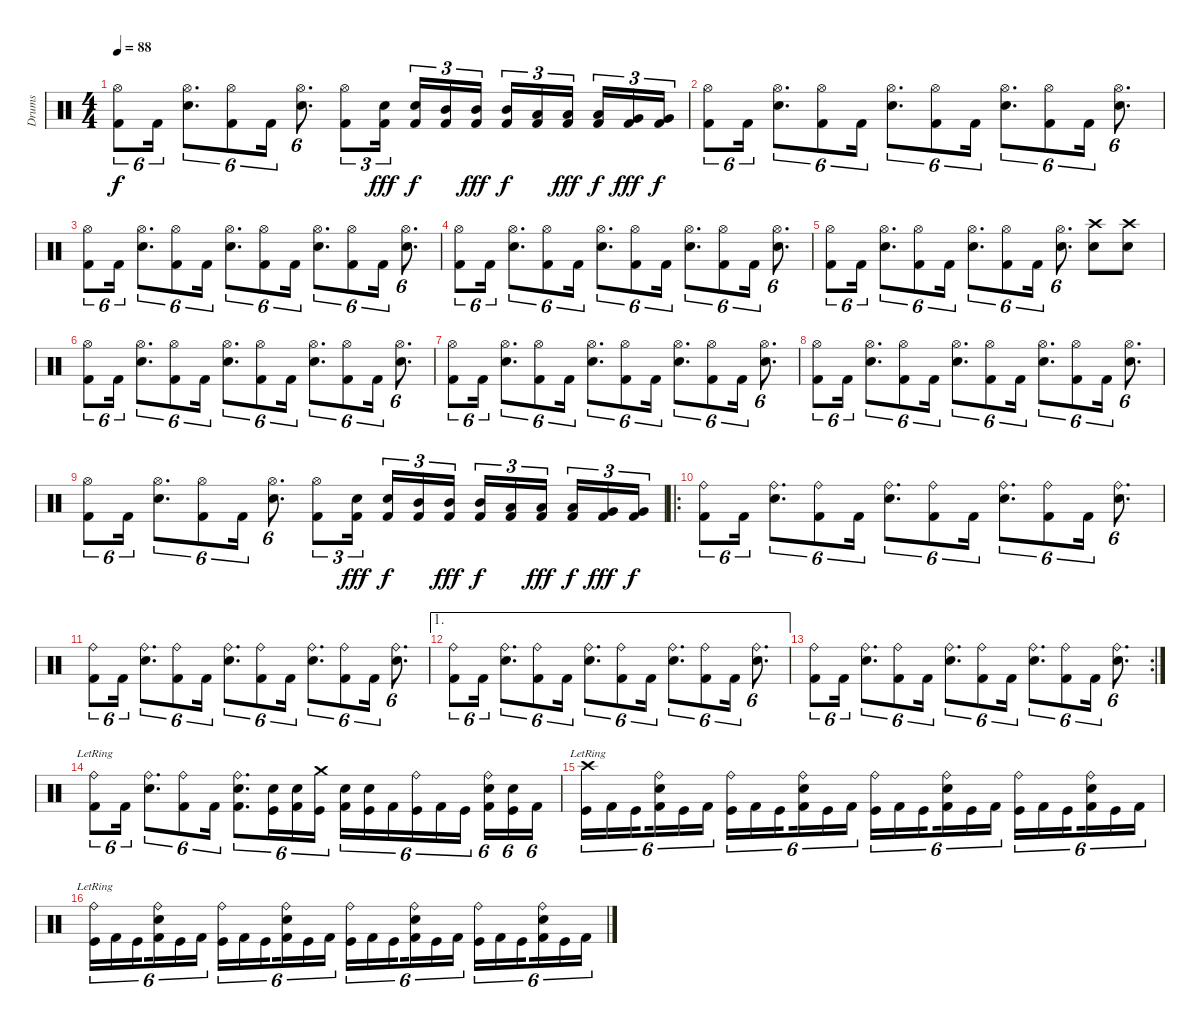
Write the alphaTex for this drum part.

\track ("Drums" "Drums") {instrument percussion}
\staff {score}
\articulation defaults
\ts (4 4)
\tempo 88
\clef neutral
\ks c
("Hi-Hat (open)" "Kick (hit) 2").8{tu (6 4) dy f} "Kick (hit) 2".16{tu (6 4)} ("Hi-Hat (open)" "Snare (hit) 2").8{d tu (6 4)} ("Hi-Hat (open)" "Kick (hit) 2").8{tu (6 4)} "Kick (hit) 2".16{tu (6 4)} ("Hi-Hat (open)" "Snare (hit) 2").8{d tu (6 4)} ("Hi-Hat (open)" "Kick (hit) 2").8{tu (3 2)} ("Snare (hit) 2" "Kick (hit) 2").16{tu (3 2) dy fff beam splitsecondary} ("Snare (hit) 2" "Kick (hit) 2").16{tu (3 2) dy f} ("Mid Tom (hit)" "Kick (hit) 2").16{tu (3 2)} ("Mid Tom (hit)" "Kick (hit) 2").16{tu (3 2) dy fff} ("Mid Tom (hit)" "Kick (hit) 2").16{tu (3 2) dy f} ("Low Tom (hit)" "Kick (hit) 2").16{tu (3 2)} ("Low Tom (hit)" "Kick (hit) 2").16{tu (3 2) dy fff beam splitsecondary} ("Low Tom (hit)" "Kick (hit) 2").16{tu (3 2) dy f} ("Very Low Tom (hit)" "Kick (hit) 2").16{tu (3 2) dy fff} ("Very Low Tom (hit)" "Kick (hit) 2").16{tu (3 2) dy f} |
("Hi-Hat (open)" "Kick (hit) 2").8{tu (6 4)} "Kick (hit) 2".16{tu (6 4)} ("Hi-Hat (open)" "Snare (hit) 2").8{d tu (6 4)} ("Hi-Hat (open)" "Kick (hit) 2").8{tu (6 4)} "Kick (hit) 2".16{tu (6 4)} ("Hi-Hat (open)" "Snare (hit) 2").8{d tu (6 4)} ("Hi-Hat (open)" "Kick (hit) 2").8{tu (6 4)} "Kick (hit) 2".16{tu (6 4)} ("Hi-Hat (open)" "Snare (hit) 2").8{d tu (6 4)} ("Hi-Hat (open)" "Kick (hit) 2").8{tu (6 4)} "Kick (hit) 2".16{tu (6 4)} ("Hi-Hat (open)" "Snare (hit) 2").8{d tu (6 4)} |
("Hi-Hat (open)" "Kick (hit) 2").8{tu (6 4)} "Kick (hit) 2".16{tu (6 4)} ("Hi-Hat (open)" "Snare (hit) 2").8{d tu (6 4)} ("Hi-Hat (open)" "Kick (hit) 2").8{tu (6 4)} "Kick (hit) 2".16{tu (6 4)} ("Hi-Hat (open)" "Snare (hit) 2").8{d tu (6 4)} ("Hi-Hat (open)" "Kick (hit) 2").8{tu (6 4)} "Kick (hit) 2".16{tu (6 4)} ("Hi-Hat (open)" "Snare (hit) 2").8{d tu (6 4)} ("Hi-Hat (open)" "Kick (hit) 2").8{tu (6 4)} "Kick (hit) 2".16{tu (6 4)} ("Hi-Hat (open)" "Snare (hit) 2").8{d tu (6 4)} |
("Hi-Hat (open)" "Kick (hit) 2").8{tu (6 4)} "Kick (hit) 2".16{tu (6 4)} ("Hi-Hat (open)" "Snare (hit) 2").8{d tu (6 4)} ("Hi-Hat (open)" "Kick (hit) 2").8{tu (6 4)} "Kick (hit) 2".16{tu (6 4)} ("Hi-Hat (open)" "Snare (hit) 2").8{d tu (6 4)} ("Hi-Hat (open)" "Kick (hit) 2").8{tu (6 4)} "Kick (hit) 2".16{tu (6 4)} ("Hi-Hat (open)" "Snare (hit) 2").8{d tu (6 4)} ("Hi-Hat (open)" "Kick (hit) 2").8{tu (6 4)} "Kick (hit) 2".16{tu (6 4)} ("Hi-Hat (open)" "Snare (hit) 2").8{d tu (6 4)} |
("Hi-Hat (open)" "Kick (hit) 2").8{tu (6 4)} "Kick (hit) 2".16{tu (6 4)} ("Hi-Hat (open)" "Snare (hit) 2").8{d tu (6 4)} ("Hi-Hat (open)" "Kick (hit) 2").8{tu (6 4)} "Kick (hit) 2".16{tu (6 4)} ("Hi-Hat (open)" "Snare (hit) 2").8{d tu (6 4)} ("Hi-Hat (open)" "Kick (hit) 2").8{tu (6 4)} "Kick (hit) 2".16{tu (6 4)} ("Hi-Hat (open)" "Snare (hit) 2").8{d tu (6 4)} ("Crash high (hit)" "Snare (hit) 2").8 ("Crash high (hit)" "Snare (hit) 2").8 |
("Hi-Hat (open)" "Kick (hit) 2").8{tu (6 4)} "Kick (hit) 2".16{tu (6 4)} ("Hi-Hat (open)" "Snare (hit) 2").8{d tu (6 4)} ("Hi-Hat (open)" "Kick (hit) 2").8{tu (6 4)} "Kick (hit) 2".16{tu (6 4)} ("Hi-Hat (open)" "Snare (hit) 2").8{d tu (6 4)} ("Hi-Hat (open)" "Kick (hit) 2").8{tu (6 4)} "Kick (hit) 2".16{tu (6 4)} ("Hi-Hat (open)" "Snare (hit) 2").8{d tu (6 4)} ("Hi-Hat (open)" "Kick (hit) 2").8{tu (6 4)} "Kick (hit) 2".16{tu (6 4)} ("Hi-Hat (open)" "Snare (hit) 2").8{d tu (6 4)} |
("Hi-Hat (open)" "Kick (hit) 2").8{tu (6 4)} "Kick (hit) 2".16{tu (6 4)} ("Hi-Hat (open)" "Snare (hit) 2").8{d tu (6 4)} ("Hi-Hat (open)" "Kick (hit) 2").8{tu (6 4)} "Kick (hit) 2".16{tu (6 4)} ("Hi-Hat (open)" "Snare (hit) 2").8{d tu (6 4)} ("Hi-Hat (open)" "Kick (hit) 2").8{tu (6 4)} "Kick (hit) 2".16{tu (6 4)} ("Hi-Hat (open)" "Snare (hit) 2").8{d tu (6 4)} ("Hi-Hat (open)" "Kick (hit) 2").8{tu (6 4)} "Kick (hit) 2".16{tu (6 4)} ("Hi-Hat (open)" "Snare (hit) 2").8{d tu (6 4)} |
("Hi-Hat (open)" "Kick (hit) 2").8{tu (6 4)} "Kick (hit) 2".16{tu (6 4)} ("Hi-Hat (open)" "Snare (hit) 2").8{d tu (6 4)} ("Hi-Hat (open)" "Kick (hit) 2").8{tu (6 4)} "Kick (hit) 2".16{tu (6 4)} ("Hi-Hat (open)" "Snare (hit) 2").8{d tu (6 4)} ("Hi-Hat (open)" "Kick (hit) 2").8{tu (6 4)} "Kick (hit) 2".16{tu (6 4)} ("Hi-Hat (open)" "Snare (hit) 2").8{d tu (6 4)} ("Hi-Hat (open)" "Kick (hit) 2").8{tu (6 4)} "Kick (hit) 2".16{tu (6 4)} ("Hi-Hat (open)" "Snare (hit) 2").8{d tu (6 4)} |
("Hi-Hat (open)" "Kick (hit) 2").8{tu (6 4)} "Kick (hit) 2".16{tu (6 4)} ("Hi-Hat (open)" "Snare (hit) 2").8{d tu (6 4)} ("Hi-Hat (open)" "Kick (hit) 2").8{tu (6 4)} "Kick (hit) 2".16{tu (6 4)} ("Hi-Hat (open)" "Snare (hit) 2").8{d tu (6 4)} ("Hi-Hat (open)" "Kick (hit) 2").8{tu (3 2)} ("Snare (hit) 2" "Kick (hit) 2").16{tu (3 2) dy fff beam splitsecondary} ("Snare (hit) 2" "Kick (hit) 2").16{tu (3 2) dy f} ("Mid Tom (hit)" "Kick (hit) 2").16{tu (3 2)} ("Mid Tom (hit)" "Kick (hit) 2").16{tu (3 2) dy fff} ("Mid Tom (hit)" "Kick (hit) 2").16{tu (3 2) dy f} ("Low Tom (hit)" "Kick (hit) 2").16{tu (3 2)} ("Low Tom (hit)" "Kick (hit) 2").16{tu (3 2) dy fff beam splitsecondary} ("Low Tom (hit)" "Kick (hit) 2").16{tu (3 2) dy f} ("Very Low Tom (hit)" "Kick (hit) 2").16{tu (3 2) dy fff} ("Very Low Tom (hit)" "Kick (hit) 2").16{tu (3 2) dy f} |
\ro
("Ride (bell)" "Kick (hit) 2").8{tu (6 4)} "Kick (hit) 2".16{tu (6 4)} ("Ride (bell)" "Snare (hit) 2").8{d tu (6 4)} ("Ride (bell)" "Kick (hit) 2").8{tu (6 4)} "Kick (hit) 2".16{tu (6 4)} ("Ride (bell)" "Snare (hit) 2").8{d tu (6 4)} ("Ride (bell)" "Kick (hit) 2").8{tu (6 4)} "Kick (hit) 2".16{tu (6 4)} ("Ride (bell)" "Snare (hit) 2").8{d tu (6 4)} ("Ride (bell)" "Kick (hit) 2").8{tu (6 4)} "Kick (hit) 2".16{tu (6 4)} ("Ride (bell)" "Snare (hit) 2").8{d tu (6 4)} |
("Ride (bell)" "Kick (hit) 2").8{tu (6 4)} "Kick (hit) 2".16{tu (6 4)} ("Ride (bell)" "Snare (hit) 2").8{d tu (6 4)} ("Ride (bell)" "Kick (hit) 2").8{tu (6 4)} "Kick (hit) 2".16{tu (6 4)} ("Ride (bell)" "Snare (hit) 2").8{d tu (6 4)} ("Ride (bell)" "Kick (hit) 2").8{tu (6 4)} "Kick (hit) 2".16{tu (6 4)} ("Ride (bell)" "Snare (hit) 2").8{d tu (6 4)} ("Ride (bell)" "Kick (hit) 2").8{tu (6 4)} "Kick (hit) 2".16{tu (6 4)} ("Ride (bell)" "Snare (hit) 2").8{d tu (6 4)} |
\ae 1
("Ride (bell)" "Kick (hit) 2").8{tu (6 4)} "Kick (hit) 2".16{tu (6 4)} ("Ride (bell)" "Snare (hit) 2").8{d tu (6 4)} ("Ride (bell)" "Kick (hit) 2").8{tu (6 4)} "Kick (hit) 2".16{tu (6 4)} ("Ride (bell)" "Snare (hit) 2").8{d tu (6 4)} ("Ride (bell)" "Kick (hit) 2").8{tu (6 4)} "Kick (hit) 2".16{tu (6 4)} ("Ride (bell)" "Snare (hit) 2").8{d tu (6 4)} ("Ride (bell)" "Kick (hit) 2").8{tu (6 4)} "Kick (hit) 2".16{tu (6 4)} ("Ride (bell)" "Snare (hit) 2").8{d tu (6 4)} |
\rc 2
("Ride (bell)" "Kick (hit) 2").8{tu (6 4)} "Kick (hit) 2".16{tu (6 4)} ("Ride (bell)" "Snare (hit) 2").8{d tu (6 4)} ("Ride (bell)" "Kick (hit) 2").8{tu (6 4)} "Kick (hit) 2".16{tu (6 4)} ("Ride (bell)" "Snare (hit) 2").8{d tu (6 4)} ("Ride (bell)" "Kick (hit) 2").8{tu (6 4)} "Kick (hit) 2".16{tu (6 4)} ("Ride (bell)" "Snare (hit) 2").8{d tu (6 4)} ("Ride (bell)" "Kick (hit) 2").8{tu (6 4)} "Kick (hit) 2".16{tu (6 4)} ("Ride (bell)" "Snare (hit) 2").8{d tu (6 4)} |
("Ride (bell)"{lr} "Kick (hit) 2").8{tu (6 4)} "Kick (hit) 2".16{tu (6 4)} ("Ride (bell)" "Snare (hit) 2").8{d tu (6 4)} ("Ride (bell)" "Kick (hit) 2").8{tu (6 4)} "Kick (hit) 2".16{tu (6 4)} ("Ride (bell)" "Snare (hit) 2" "Kick (hit) 2").8{d tu (6 4)} ("Snare (hit) 2" "Kick (hit)").16{tu (6 4)} ("Snare (hit) 2" "Kick (hit) 2").16{tu (6 4)} ("Crash medium (hit)" "Kick (hit)").16{tu (6 4) beam splitsecondary} ("Snare (hit) 2" "Kick (hit) 2").16{tu (6 4)} ("Snare (hit) 2" "Kick (hit)").16{tu (6 4)} "Kick (hit) 2".16{tu (6 4)} ("Ride (bell)" "Kick (hit)").16{tu (6 4)} "Kick (hit) 2".16{tu (6 4)} "Kick (hit)".16{tu (6 4) beam splitsecondary} ("Ride (bell)" "Snare (hit) 2" "Kick (hit) 2").16{tu (6 4)} ("Snare (hit) 2" "Kick (hit)").16{tu (6 4)} "Kick (hit) 2".16{tu (6 4)} |
("Crash high (hit)"{lr} "Kick (hit)").16{tu (6 4)} "Kick (hit) 2".16{tu (6 4)} "Kick (hit)".16{tu (6 4) beam splitsecondary} ("Ride (bell)" "Snare (hit) 2" "Kick (hit) 2").16{tu (6 4)} "Kick (hit)".16{tu (6 4)} "Kick (hit) 2".16{tu (6 4)} ("Ride (bell)" "Kick (hit)").16{tu (6 4)} "Kick (hit) 2".16{tu (6 4)} "Kick (hit)".16{tu (6 4) beam splitsecondary} ("Ride (bell)" "Snare (hit) 2" "Kick (hit) 2").16{tu (6 4)} "Kick (hit)".16{tu (6 4)} "Kick (hit) 2".16{tu (6 4)} ("Ride (bell)" "Kick (hit)").16{tu (6 4)} "Kick (hit) 2".16{tu (6 4)} "Kick (hit)".16{tu (6 4) beam splitsecondary} ("Ride (bell)" "Snare (hit) 2" "Kick (hit) 2").16{tu (6 4)} "Kick (hit)".16{tu (6 4)} "Kick (hit) 2".16{tu (6 4)} ("Ride (bell)" "Kick (hit)").16{tu (6 4)} "Kick (hit) 2".16{tu (6 4)} "Kick (hit)".16{tu (6 4) beam splitsecondary} ("Ride (bell)" "Snare (hit) 2" "Kick (hit) 2").16{tu (6 4)} "Kick (hit)".16{tu (6 4)} "Kick (hit) 2".16{tu (6 4)} |
("Ride (bell)"{lr} "Kick (hit)").16{tu (6 4)} "Kick (hit) 2".16{tu (6 4)} "Kick (hit)".16{tu (6 4) beam splitsecondary} ("Ride (bell)" "Snare (hit) 2" "Kick (hit) 2").16{tu (6 4)} "Kick (hit)".16{tu (6 4)} "Kick (hit) 2".16{tu (6 4)} ("Ride (bell)" "Kick (hit)").16{tu (6 4)} "Kick (hit) 2".16{tu (6 4)} "Kick (hit)".16{tu (6 4) beam splitsecondary} ("Ride (bell)" "Snare (hit) 2" "Kick (hit) 2").16{tu (6 4)} "Kick (hit)".16{tu (6 4)} "Kick (hit) 2".16{tu (6 4)} ("Ride (bell)" "Kick (hit)").16{tu (6 4)} "Kick (hit) 2".16{tu (6 4)} "Kick (hit)".16{tu (6 4) beam splitsecondary} ("Ride (bell)" "Snare (hit) 2" "Kick (hit) 2").16{tu (6 4)} "Kick (hit)".16{tu (6 4)} "Kick (hit) 2".16{tu (6 4)} ("Ride (bell)" "Kick (hit)").16{tu (6 4)} "Kick (hit) 2".16{tu (6 4)} "Kick (hit)".16{tu (6 4) beam splitsecondary} ("Ride (bell)" "Snare (hit) 2" "Kick (hit) 2").16{tu (6 4)} "Kick (hit)".16{tu (6 4)} "Kick (hit) 2".16{tu (6 4)}
